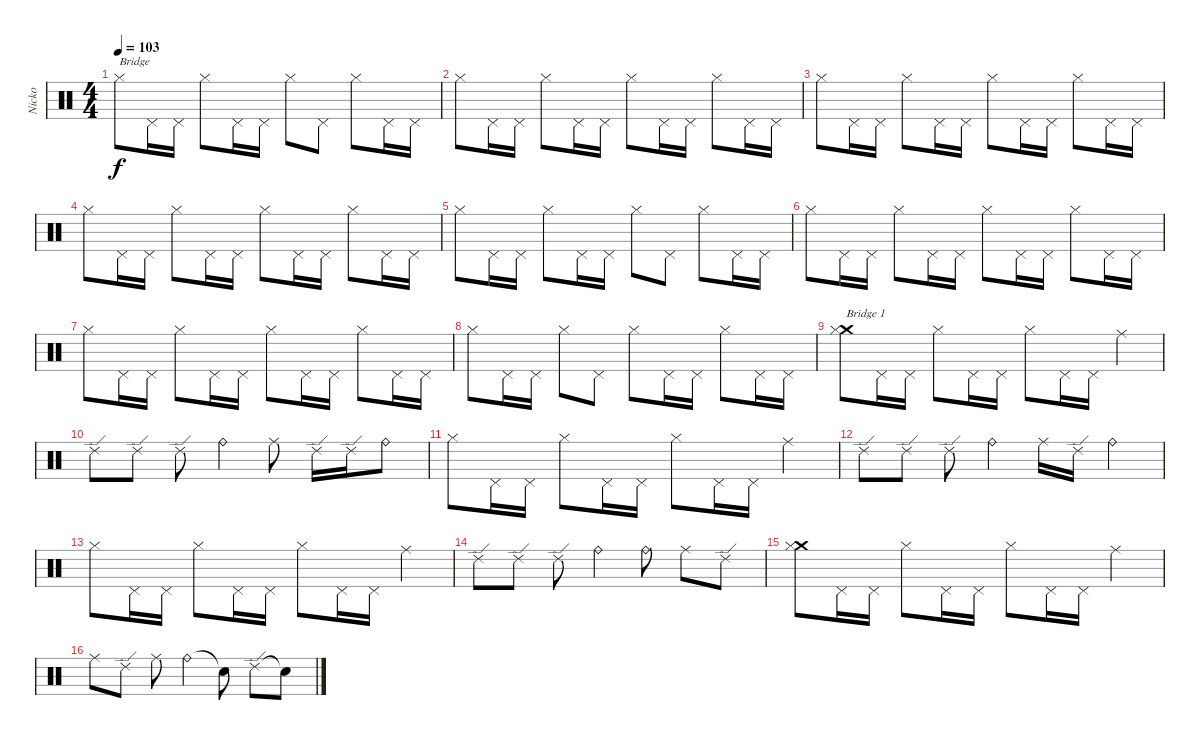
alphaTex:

\track ("Nicko" "Nicko") {instrument percussion}
\staff {score}
\articulation defaults
\ts (4 4)
\tempo 103
\clef neutral
\ks c "Hi-Hat (closed)".8{txt "Bridge" dy f} "Pedal Hi-Hat (hit)".16 "Pedal Hi-Hat (hit)".16 "Hi-Hat (closed)".8 "Pedal Hi-Hat (hit)".16 "Pedal Hi-Hat (hit)".16 "Hi-Hat (closed)".8 "Pedal Hi-Hat (hit)".8 "Hi-Hat (closed)".8 "Pedal Hi-Hat (hit)".16 "Pedal Hi-Hat (hit)".16
|
"Hi-Hat (closed)".8 "Pedal Hi-Hat (hit)".16 "Pedal Hi-Hat (hit)".16 "Hi-Hat (closed)".8 "Pedal Hi-Hat (hit)".16 "Pedal Hi-Hat (hit)".16 "Hi-Hat (closed)".8 "Pedal Hi-Hat (hit)".16 "Pedal Hi-Hat (hit)".16 "Hi-Hat (closed)".8 "Pedal Hi-Hat (hit)".16 "Pedal Hi-Hat (hit)".16 |
"Hi-Hat (closed)".8 "Pedal Hi-Hat (hit)".16 "Pedal Hi-Hat (hit)".16 "Hi-Hat (closed)".8 "Pedal Hi-Hat (hit)".16 "Pedal Hi-Hat (hit)".16 "Hi-Hat (closed)".8 "Pedal Hi-Hat (hit)".16 "Pedal Hi-Hat (hit)".16 "Hi-Hat (closed)".8 "Pedal Hi-Hat (hit)".16 "Pedal Hi-Hat (hit)".16 |
"Hi-Hat (closed)".8 "Pedal Hi-Hat (hit)".16 "Pedal Hi-Hat (hit)".16 "Hi-Hat (closed)".8 "Pedal Hi-Hat (hit)".16 "Pedal Hi-Hat (hit)".16 "Hi-Hat (closed)".8 "Pedal Hi-Hat (hit)".16 "Pedal Hi-Hat (hit)".16 "Hi-Hat (closed)".8 "Pedal Hi-Hat (hit)".16 "Pedal Hi-Hat (hit)".16 |
"Hi-Hat (closed)".8 "Pedal Hi-Hat (hit)".16 "Pedal Hi-Hat (hit)".16 "Hi-Hat (closed)".8 "Pedal Hi-Hat (hit)".16 "Pedal Hi-Hat (hit)".16 "Hi-Hat (closed)".8 "Pedal Hi-Hat (hit)".8 "Hi-Hat (closed)".8 "Pedal Hi-Hat (hit)".16 "Pedal Hi-Hat (hit)".16 |
"Hi-Hat (closed)".8 "Pedal Hi-Hat (hit)".16 "Pedal Hi-Hat (hit)".16 "Hi-Hat (closed)".8 "Pedal Hi-Hat (hit)".16 "Pedal Hi-Hat (hit)".16 "Hi-Hat (closed)".8 "Pedal Hi-Hat (hit)".16 "Pedal Hi-Hat (hit)".16 "Hi-Hat (closed)".8 "Pedal Hi-Hat (hit)".16 "Pedal Hi-Hat (hit)".16 |
"Hi-Hat (closed)".8 "Pedal Hi-Hat (hit)".16 "Pedal Hi-Hat (hit)".16 "Hi-Hat (closed)".8 "Pedal Hi-Hat (hit)".16 "Pedal Hi-Hat (hit)".16 "Hi-Hat (closed)".8 "Pedal Hi-Hat (hit)".16 "Pedal Hi-Hat (hit)".16 "Hi-Hat (closed)".8 "Pedal Hi-Hat (hit)".16 "Pedal Hi-Hat (hit)".16 |
"Hi-Hat (closed)".8 "Pedal Hi-Hat (hit)".16 "Pedal Hi-Hat (hit)".16 "Hi-Hat (closed)".8 "Pedal Hi-Hat (hit)".8 "Hi-Hat (closed)".8 "Pedal Hi-Hat (hit)".16 "Pedal Hi-Hat (hit)".16 "Hi-Hat (closed)".8 "Pedal Hi-Hat (hit)".16 "Pedal Hi-Hat (hit)".16 |
("Crash medium (hit)" "Hi-Hat (closed)").8{txt "Bridge 1"} "Pedal Hi-Hat (hit)".16 "Pedal Hi-Hat (hit)".16 "Hi-Hat (closed)".8 "Pedal Hi-Hat (hit)".16 "Pedal Hi-Hat (hit)".16 "Hi-Hat (closed)".8 "Pedal Hi-Hat (hit)".16 "Pedal Hi-Hat (hit)".16 "Ride (middle)".4 |
"Ride (edge) 2".8 "Ride (edge) 2".8 "Ride (edge) 2".8 "Ride (bell)".4 "Ride (middle)".8 "Ride (edge) 2".16 "Ride (edge) 2".16 "Ride (bell)".8 |
"Hi-Hat (closed)".8 "Pedal Hi-Hat (hit)".16 "Pedal Hi-Hat (hit)".16 "Hi-Hat (closed)".8 "Pedal Hi-Hat (hit)".16 "Pedal Hi-Hat (hit)".16 "Hi-Hat (closed)".8 "Pedal Hi-Hat (hit)".16 "Pedal Hi-Hat (hit)".16 "Ride (middle)".4 |
"Ride (edge) 2".8 "Ride (edge) 2".8 "Ride (edge) 2".8 "Ride (bell)".4 "Ride (middle)".16 "Ride (edge) 2".16 "Ride (bell)".4 |
"Hi-Hat (closed)".8 "Pedal Hi-Hat (hit)".16 "Pedal Hi-Hat (hit)".16 "Hi-Hat (closed)".8 "Pedal Hi-Hat (hit)".16 "Pedal Hi-Hat (hit)".16 "Hi-Hat (closed)".8 "Pedal Hi-Hat (hit)".16 "Pedal Hi-Hat (hit)".16 "Ride (middle)".4 |
"Ride (edge) 2".8 "Ride (edge) 2".8 "Ride (edge) 2".8 "Ride (bell)".4 "Ride (bell)".8 "Ride (middle)".8 "Ride (edge) 2".8 |
("Crash medium (hit)" "Hi-Hat (closed)").8 "Pedal Hi-Hat (hit)".16 "Pedal Hi-Hat (hit)".16 "Hi-Hat (closed)".8 "Pedal Hi-Hat (hit)".16 "Pedal Hi-Hat (hit)".16 "Hi-Hat (closed)".8 "Pedal Hi-Hat (hit)".16 "Pedal Hi-Hat (hit)".16 "Ride (middle)".4 |
"Ride (middle)".8 "Ride (edge) 2".8 "Ride (middle)".8 "Ride (bell)".4 "Snare (hit)"{t}.8 "Ride (edge) 2".8 "Snare (hit)"{t}.8
